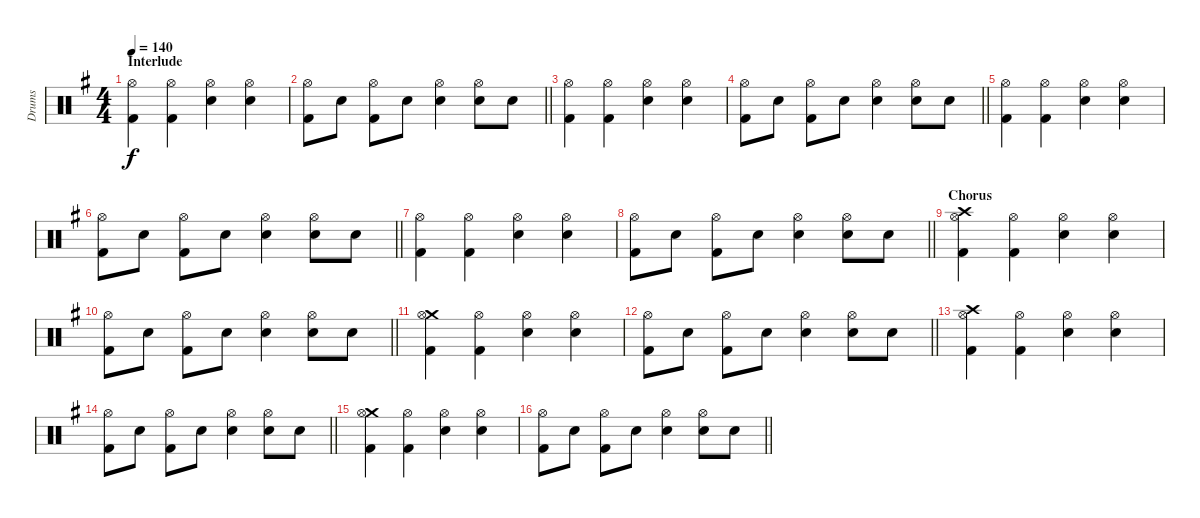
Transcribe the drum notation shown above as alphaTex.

\track ("Drums" "Drums") {instrument percussion}
\staff {score}
\articulation defaults
\ts (4 4)
\section ("" "Interlude")
\tempo 140
\clef neutral
\ks g
("Hi-Hat (open)" "Kick (hit) 2").4{dy f} ("Hi-Hat (open)" "Kick (hit) 2").4 ("Snare (hit) 2" "Hi-Hat (open)").4 ("Snare (hit) 2" "Hi-Hat (open)").4 |
\barLineRight lightlight
("Kick (hit) 2" "Hi-Hat (open)").8 "Snare (hit) 2".8 ("Kick (hit) 2" "Hi-Hat (open)").8 "Snare (hit) 2".8 ("Snare (hit) 2" "Hi-Hat (open)").4 ("Snare (hit) 2" "Hi-Hat (open)").8 "Snare (hit) 2".8 |
("Hi-Hat (open)" "Kick (hit) 2").4 ("Hi-Hat (open)" "Kick (hit) 2").4 ("Snare (hit) 2" "Hi-Hat (open)").4 ("Snare (hit) 2" "Hi-Hat (open)").4 |
\barLineRight lightlight
("Kick (hit) 2" "Hi-Hat (open)").8 "Snare (hit) 2".8 ("Kick (hit) 2" "Hi-Hat (open)").8 "Snare (hit) 2".8 ("Snare (hit) 2" "Hi-Hat (open)").4 ("Snare (hit) 2" "Hi-Hat (open)").8 "Snare (hit) 2".8 |
("Hi-Hat (open)" "Kick (hit) 2").4 ("Hi-Hat (open)" "Kick (hit) 2").4 ("Snare (hit) 2" "Hi-Hat (open)").4 ("Snare (hit) 2" "Hi-Hat (open)").4 |
\barLineRight lightlight
("Kick (hit) 2" "Hi-Hat (open)").8 "Snare (hit) 2".8 ("Kick (hit) 2" "Hi-Hat (open)").8 "Snare (hit) 2".8 ("Snare (hit) 2" "Hi-Hat (open)").4 ("Snare (hit) 2" "Hi-Hat (open)").8 "Snare (hit) 2".8 |
("Hi-Hat (open)" "Kick (hit) 2").4 ("Hi-Hat (open)" "Kick (hit) 2").4 ("Snare (hit) 2" "Hi-Hat (open)").4 ("Snare (hit) 2" "Hi-Hat (open)").4 |
\barLineRight lightlight
("Kick (hit) 2" "Hi-Hat (open)").8 "Snare (hit) 2".8 ("Kick (hit) 2" "Hi-Hat (open)").8 "Snare (hit) 2".8 ("Snare (hit) 2" "Hi-Hat (open)").4 ("Snare (hit) 2" "Hi-Hat (open)").8 "Snare (hit) 2".8 |
\section ("" "Chorus")
("Crash high (hit)" "Hi-Hat (open)" "Kick (hit) 2").4 ("Hi-Hat (open)" "Kick (hit) 2").4 ("Snare (hit) 2" "Hi-Hat (open)").4 ("Snare (hit) 2" "Hi-Hat (open)").4 |
\barLineRight lightlight
("Kick (hit) 2" "Hi-Hat (open)").8 "Snare (hit) 2".8 ("Kick (hit) 2" "Hi-Hat (open)").8 "Snare (hit) 2".8 ("Snare (hit) 2" "Hi-Hat (open)").4 ("Snare (hit) 2" "Hi-Hat (open)").8 "Snare (hit) 2".8 |
("Crash medium (hit)" "Hi-Hat (open)" "Kick (hit) 2").4 ("Hi-Hat (open)" "Kick (hit) 2").4 ("Snare (hit) 2" "Hi-Hat (open)").4 ("Snare (hit) 2" "Hi-Hat (open)").4 |
\barLineRight lightlight
("Kick (hit) 2" "Hi-Hat (open)").8 "Snare (hit) 2".8 ("Kick (hit) 2" "Hi-Hat (open)").8 "Snare (hit) 2".8 ("Snare (hit) 2" "Hi-Hat (open)").4 ("Snare (hit) 2" "Hi-Hat (open)").8 "Snare (hit) 2".8 |
("Crash high (hit)" "Hi-Hat (open)" "Kick (hit) 2").4 ("Hi-Hat (open)" "Kick (hit) 2").4 ("Snare (hit) 2" "Hi-Hat (open)").4 ("Snare (hit) 2" "Hi-Hat (open)").4 |
\barLineRight lightlight
("Kick (hit) 2" "Hi-Hat (open)").8 "Snare (hit) 2".8 ("Kick (hit) 2" "Hi-Hat (open)").8 "Snare (hit) 2".8 ("Snare (hit) 2" "Hi-Hat (open)").4 ("Snare (hit) 2" "Hi-Hat (open)").8 "Snare (hit) 2".8 |
("Crash medium (hit)" "Hi-Hat (open)" "Kick (hit) 2").4 ("Hi-Hat (open)" "Kick (hit) 2").4 ("Snare (hit) 2" "Hi-Hat (open)").4 ("Snare (hit) 2" "Hi-Hat (open)").4 |
\barLineRight lightlight
("Kick (hit) 2" "Hi-Hat (open)").8 "Snare (hit) 2".8 ("Kick (hit) 2" "Hi-Hat (open)").8 "Snare (hit) 2".8 ("Snare (hit) 2" "Hi-Hat (open)").4 ("Snare (hit) 2" "Hi-Hat (open)").8 "Snare (hit) 2".8
